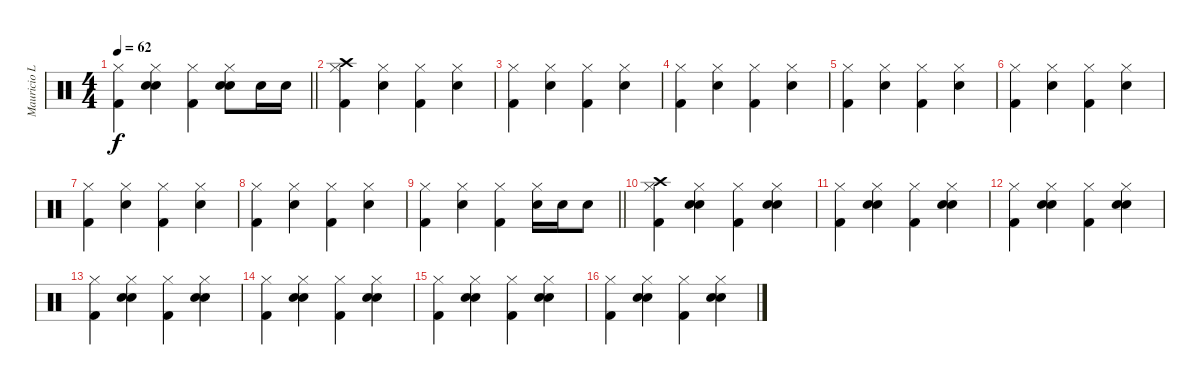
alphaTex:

\track ("Mauricio Loza" "Mauricio L") {instrument percussion}
\staff {score}
\articulation defaults
\ts (4 4)
\tempo 62
\clef neutral
\barLineRight lightlight
\ks c
("Hi-Hat (closed)" "Kick (hit) 2").4{dy f} ("Hi-Hat (closed)" "Electric Snare (hit)" "Hand Clap (hit)").4 ("Hi-Hat (closed)" "Kick (hit) 2").4 ("Hi-Hat (closed)" "Electric Snare (hit)" "Hand Clap (hit)").8 "Electric Snare (hit)".16 "Electric Snare (hit)".16 |
("Hi-Hat (closed)" "Crash high (hit)" "Kick (hit) 2").4{volume 11} ("Hi-Hat (closed)" "Electric Snare (hit)").4 ("Hi-Hat (closed)" "Kick (hit) 2").4 ("Hi-Hat (closed)" "Electric Snare (hit)").4 |
("Hi-Hat (closed)" "Kick (hit) 2").4 ("Hi-Hat (closed)" "Electric Snare (hit)").4 ("Hi-Hat (closed)" "Kick (hit) 2").4 ("Hi-Hat (closed)" "Electric Snare (hit)").4 |
("Hi-Hat (closed)" "Kick (hit) 2").4 ("Hi-Hat (closed)" "Electric Snare (hit)").4 ("Hi-Hat (closed)" "Kick (hit) 2").4 ("Hi-Hat (closed)" "Electric Snare (hit)").4 |
("Hi-Hat (closed)" "Kick (hit) 2").4 ("Hi-Hat (closed)" "Electric Snare (hit)").4 ("Hi-Hat (closed)" "Kick (hit) 2").4 ("Hi-Hat (closed)" "Electric Snare (hit)").4 |
("Hi-Hat (closed)" "Kick (hit) 2").4 ("Hi-Hat (closed)" "Electric Snare (hit)").4 ("Hi-Hat (closed)" "Kick (hit) 2").4 ("Hi-Hat (closed)" "Electric Snare (hit)").4 |
("Hi-Hat (closed)" "Kick (hit) 2").4 ("Hi-Hat (closed)" "Electric Snare (hit)").4 ("Hi-Hat (closed)" "Kick (hit) 2").4 ("Hi-Hat (closed)" "Electric Snare (hit)").4 |
("Hi-Hat (closed)" "Kick (hit) 2").4 ("Hi-Hat (closed)" "Electric Snare (hit)").4 ("Hi-Hat (closed)" "Kick (hit) 2").4 ("Hi-Hat (closed)" "Electric Snare (hit)").4 |
\barLineRight lightlight
("Hi-Hat (closed)" "Kick (hit) 2").4 ("Hi-Hat (closed)" "Electric Snare (hit)").4 ("Hi-Hat (closed)" "Kick (hit) 2").4 ("Hi-Hat (closed)" "Electric Snare (hit)").16 "Electric Snare (hit)".16 "Electric Snare (hit)".8 |
("Hi-Hat (closed)" "Crash high (hit)" "Kick (hit) 2").4{volume 13} ("Hi-Hat (closed)" "Electric Snare (hit)" "Hand Clap (hit)").4 ("Hi-Hat (closed)" "Kick (hit) 2").4 ("Hi-Hat (closed)" "Electric Snare (hit)" "Hand Clap (hit)").4 |
("Hi-Hat (closed)" "Kick (hit) 2").4 ("Hi-Hat (closed)" "Electric Snare (hit)" "Hand Clap (hit)").4 ("Hi-Hat (closed)" "Kick (hit) 2").4 ("Hi-Hat (closed)" "Electric Snare (hit)" "Hand Clap (hit)").4 |
("Hi-Hat (closed)" "Kick (hit) 2").4 ("Hi-Hat (closed)" "Electric Snare (hit)" "Hand Clap (hit)").4 ("Hi-Hat (closed)" "Kick (hit) 2").4 ("Hi-Hat (closed)" "Electric Snare (hit)" "Hand Clap (hit)").4 |
("Hi-Hat (closed)" "Kick (hit) 2").4 ("Hi-Hat (closed)" "Electric Snare (hit)" "Hand Clap (hit)").4 ("Hi-Hat (closed)" "Kick (hit) 2").4 ("Hi-Hat (closed)" "Electric Snare (hit)" "Hand Clap (hit)").4 |
("Hi-Hat (closed)" "Kick (hit) 2").4 ("Hi-Hat (closed)" "Electric Snare (hit)" "Hand Clap (hit)").4 ("Hi-Hat (closed)" "Kick (hit) 2").4 ("Hi-Hat (closed)" "Electric Snare (hit)" "Hand Clap (hit)").4 |
("Hi-Hat (closed)" "Kick (hit) 2").4 ("Hi-Hat (closed)" "Electric Snare (hit)" "Hand Clap (hit)").4 ("Hi-Hat (closed)" "Kick (hit) 2").4 ("Hi-Hat (closed)" "Electric Snare (hit)" "Hand Clap (hit)").4 |
("Hi-Hat (closed)" "Kick (hit) 2").4 ("Hi-Hat (closed)" "Electric Snare (hit)" "Hand Clap (hit)").4 ("Hi-Hat (closed)" "Kick (hit) 2").4 ("Hi-Hat (closed)" "Electric Snare (hit)" "Hand Clap (hit)").4
